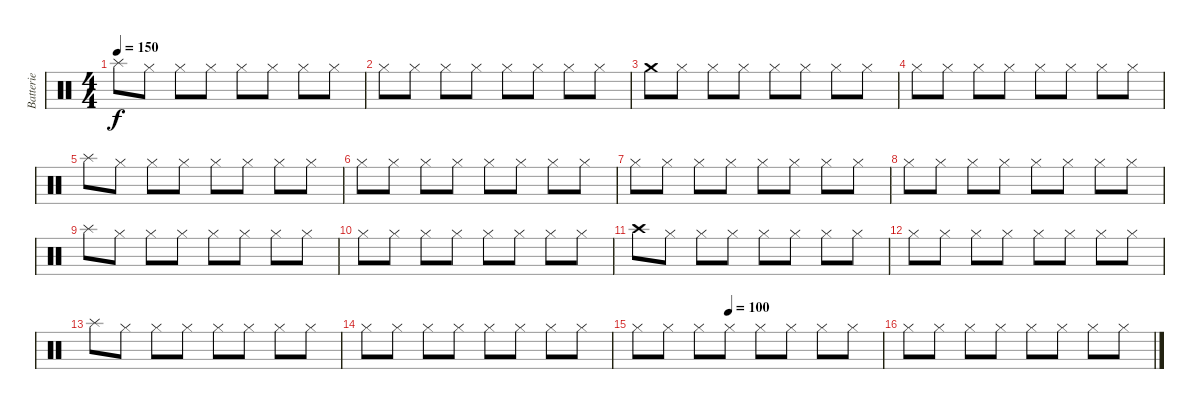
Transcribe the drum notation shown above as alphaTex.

\track ("Batterie" "Batterie") {instrument percussion}
\staff {score}
\articulation defaults
\ts (4 4)
\tempo 150
\clef neutral
\ks c "Splash (hit)".8{dy f} "Hi-Hat (closed)".8 "Hi-Hat (closed)".8 "Hi-Hat (closed)".8 "Hi-Hat (closed)".8 "Hi-Hat (closed)".8 "Hi-Hat (closed)".8 "Hi-Hat (closed)".8
|
"Hi-Hat (closed)".8 "Hi-Hat (closed)".8 "Hi-Hat (closed)".8 "Hi-Hat (closed)".8 "Hi-Hat (closed)".8 "Hi-Hat (closed)".8 "Hi-Hat (closed)".8 "Hi-Hat (closed)".8 |
"Crash medium (hit)".8 "Hi-Hat (closed)".8 "Hi-Hat (closed)".8 "Hi-Hat (closed)".8 "Hi-Hat (closed)".8 "Hi-Hat (closed)".8 "Hi-Hat (closed)".8 "Hi-Hat (closed)".8 |
"Hi-Hat (closed)".8 "Hi-Hat (closed)".8 "Hi-Hat (closed)".8 "Hi-Hat (closed)".8 "Hi-Hat (closed)".8 "Hi-Hat (closed)".8 "Hi-Hat (closed)".8 "Hi-Hat (closed)".8 |
"Splash (hit)".8 "Hi-Hat (closed)".8 "Hi-Hat (closed)".8 "Hi-Hat (closed)".8 "Hi-Hat (closed)".8 "Hi-Hat (closed)".8 "Hi-Hat (closed)".8 "Hi-Hat (closed)".8 |
"Hi-Hat (closed)".8 "Hi-Hat (closed)".8 "Hi-Hat (closed)".8 "Hi-Hat (closed)".8 "Hi-Hat (closed)".8 "Hi-Hat (closed)".8 "Hi-Hat (closed)".8 "Hi-Hat (closed)".8 |
"Hi-Hat (closed)".8 "Hi-Hat (closed)".8 "Hi-Hat (closed)".8 "Hi-Hat (closed)".8 "Hi-Hat (closed)".8 "Hi-Hat (closed)".8 "Hi-Hat (closed)".8 "Hi-Hat (closed)".8 |
"Hi-Hat (closed)".8 "Hi-Hat (closed)".8 "Hi-Hat (closed)".8 "Hi-Hat (closed)".8 "Hi-Hat (closed)".8 "Hi-Hat (closed)".8 "Hi-Hat (closed)".8 "Hi-Hat (closed)".8 |
"Splash (hit)".8 "Hi-Hat (closed)".8 "Hi-Hat (closed)".8 "Hi-Hat (closed)".8 "Hi-Hat (closed)".8 "Hi-Hat (closed)".8 "Hi-Hat (closed)".8 "Hi-Hat (closed)".8 |
"Hi-Hat (closed)".8 "Hi-Hat (closed)".8 "Hi-Hat (closed)".8 "Hi-Hat (closed)".8 "Hi-Hat (closed)".8 "Hi-Hat (closed)".8 "Hi-Hat (closed)".8 "Hi-Hat (closed)".8 |
"Crash high (hit)".8 "Hi-Hat (closed)".8 "Hi-Hat (closed)".8 "Hi-Hat (closed)".8 "Hi-Hat (closed)".8 "Hi-Hat (closed)".8 "Hi-Hat (closed)".8 "Hi-Hat (closed)".8 |
"Hi-Hat (closed)".8 "Hi-Hat (closed)".8 "Hi-Hat (closed)".8 "Hi-Hat (closed)".8 "Hi-Hat (closed)".8 "Hi-Hat (closed)".8 "Hi-Hat (closed)".8 "Hi-Hat (closed)".8 |
"Splash (hit)".8 "Hi-Hat (closed)".8 "Hi-Hat (closed)".8 "Hi-Hat (closed)".8 "Hi-Hat (closed)".8 "Hi-Hat (closed)".8 "Hi-Hat (closed)".8 "Hi-Hat (closed)".8 |
"Hi-Hat (closed)".8 "Hi-Hat (closed)".8 "Hi-Hat (closed)".8 "Hi-Hat (closed)".8 "Hi-Hat (closed)".8 "Hi-Hat (closed)".8 "Hi-Hat (closed)".8 "Hi-Hat (closed)".8 |
\tempo (100 0.375)
"Hi-Hat (closed)".8 "Hi-Hat (closed)".8 "Hi-Hat (closed)".8 "Hi-Hat (closed)".8 "Hi-Hat (closed)".8 "Hi-Hat (closed)".8 "Hi-Hat (closed)".8 "Hi-Hat (closed)".8 |
"Hi-Hat (closed)".8 "Hi-Hat (closed)".8 "Hi-Hat (closed)".8 "Hi-Hat (closed)".8 "Hi-Hat (closed)".8 "Hi-Hat (closed)".8 "Hi-Hat (closed)".8 "Hi-Hat (closed)".8
